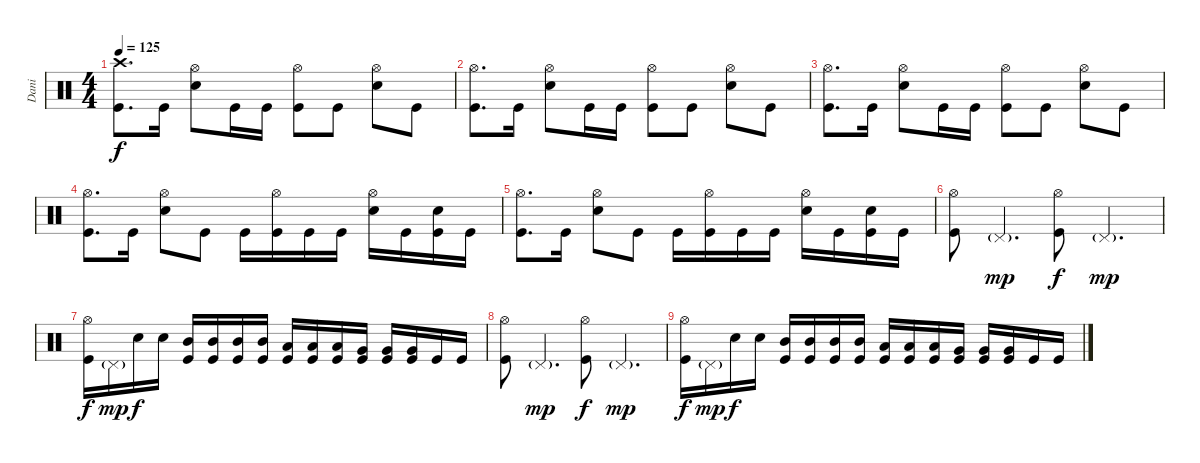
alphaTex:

\track ("Dani" "Dani") {instrument percussion}
\staff {score}
\articulation defaults
\ts (4 4)
\tempo 125
\clef neutral
\ks c
("Kick (hit)" "Crash high (hit)").8{d dy f} "Kick (hit)".16 ("Snare (hit) 2" "Hi-Hat (open)").8 "Kick (hit)".16 "Kick (hit)".16 ("Kick (hit)" "Hi-Hat (open)").8 "Kick (hit)".8 ("Snare (hit) 2" "Hi-Hat (open)").8 "Kick (hit)".8 |
("Kick (hit)" "Hi-Hat (open)").8{d} "Kick (hit)".16 ("Snare (hit) 2" "Hi-Hat (open)").8 "Kick (hit)".16 "Kick (hit)".16 ("Kick (hit)" "Hi-Hat (open)").8 "Kick (hit)".8 ("Snare (hit) 2" "Hi-Hat (open)").8 "Kick (hit)".8 |
("Kick (hit)" "Hi-Hat (open)").8{d} "Kick (hit)".16 ("Snare (hit) 2" "Hi-Hat (open)").8 "Kick (hit)".16 "Kick (hit)".16 ("Kick (hit)" "Hi-Hat (open)").8 "Kick (hit)".8 ("Snare (hit) 2" "Hi-Hat (open)").8 "Kick (hit)".8 |
("Kick (hit)" "Hi-Hat (open)").8{d} "Kick (hit)".16 ("Snare (hit) 2" "Hi-Hat (open)").8 "Kick (hit)".8 "Kick (hit)".16 ("Kick (hit)" "Hi-Hat (open)").16 "Kick (hit)".16 "Kick (hit)".16 ("Snare (hit) 2" "Hi-Hat (open)").16 "Kick (hit)".16 ("Kick (hit)" "Snare (hit) 2").16 "Kick (hit)".16 |
("Kick (hit)" "Hi-Hat (open)").8{d} "Kick (hit)".16 ("Snare (hit) 2" "Hi-Hat (open)").8 "Kick (hit)".8 "Kick (hit)".16 ("Kick (hit)" "Hi-Hat (open)").16 "Kick (hit)".16 "Kick (hit)".16 ("Snare (hit) 2" "Hi-Hat (open)").16 "Kick (hit)".16 ("Kick (hit)" "Snare (hit) 2").16 "Kick (hit)".16 |
("Kick (hit)" "Hi-Hat (open)").8 "Pedal Hi-Hat (hit)"{g}.4{d dy mp} ("Kick (hit)" "Hi-Hat (open)").8{dy f} "Pedal Hi-Hat (hit)"{g}.4{d dy mp} |
("Kick (hit)" "Hi-Hat (open)").16{dy f} "Pedal Hi-Hat (hit)"{g}.16{dy mp} "Snare (hit) 2".16{dy f} "Snare (hit) 2".16 ("Mid Tom (hit)" "Kick (hit)").16 ("Mid Tom (hit)" "Kick (hit)").16 ("Mid Tom (hit)" "Kick (hit)").16 ("Mid Tom (hit)" "Kick (hit)").16 ("Low Tom (hit)" "Kick (hit)").16 ("Low Tom (hit)" "Kick (hit)").16 ("Low Tom (hit)" "Kick (hit)").16 ("Very Low Tom (hit)" "Kick (hit)").16 ("Very Low Tom (hit)" "Kick (hit)").16 ("Very Low Tom (hit)" "Kick (hit)").16 "Kick (hit)".16 "Kick (hit)".16 |
("Kick (hit)" "Hi-Hat (open)").8 "Pedal Hi-Hat (hit)"{g}.4{d dy mp} ("Kick (hit)" "Hi-Hat (open)").8{dy f} "Pedal Hi-Hat (hit)"{g}.4{d dy mp} |
("Kick (hit)" "Hi-Hat (open)").16{dy f} "Pedal Hi-Hat (hit)"{g}.16{dy mp} "Snare (hit) 2".16{dy f} "Snare (hit) 2".16 ("Mid Tom (hit)" "Kick (hit)").16 ("Mid Tom (hit)" "Kick (hit)").16 ("Mid Tom (hit)" "Kick (hit)").16 ("Mid Tom (hit)" "Kick (hit)").16 ("Low Tom (hit)" "Kick (hit)").16 ("Low Tom (hit)" "Kick (hit)").16 ("Low Tom (hit)" "Kick (hit)").16 ("Very Low Tom (hit)" "Kick (hit)").16 ("Very Low Tom (hit)" "Kick (hit)").16 ("Very Low Tom (hit)" "Kick (hit)").16 "Kick (hit)".16 "Kick (hit)".16
